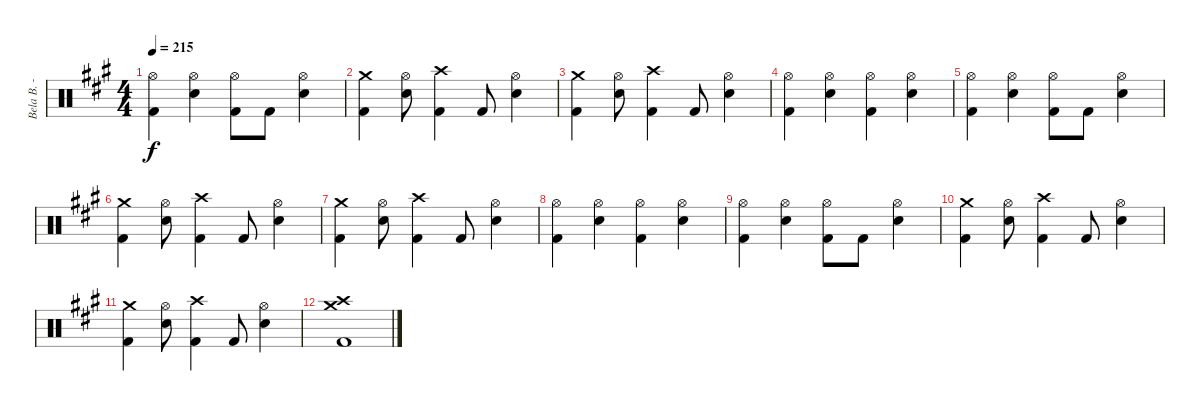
\track ("Bela B. - Schlagzeug" "Bela B. - ") {instrument percussion}
\staff {score}
\articulation defaults
\ts (4 4)
\tempo 215
\clef neutral
\ks a
("Hi-Hat (open)" "Kick (hit) 2").4{dy f} ("Hi-Hat (open)" "Snare (hit) 2").4 ("Hi-Hat (open)" "Kick (hit) 2").8 "Kick (hit) 2".8 ("Hi-Hat (open)" "Snare (hit) 2").4 |
("Crash medium (hit)" "Kick (hit) 2").4 ("Hi-Hat (open)" "Snare (hit) 2").8 ("Crash high (hit)" "Kick (hit) 2").4 "Kick (hit) 2".8 ("Hi-Hat (open)" "Snare (hit) 2").4 |
("Crash medium (hit)" "Kick (hit) 2").4 ("Hi-Hat (open)" "Snare (hit) 2").8 ("Crash high (hit)" "Kick (hit) 2").4 "Kick (hit) 2".8 ("Hi-Hat (open)" "Snare (hit) 2").4 |
("Hi-Hat (open)" "Kick (hit) 2").4 ("Hi-Hat (open)" "Snare (hit) 2").4 ("Hi-Hat (open)" "Kick (hit) 2").4 ("Hi-Hat (open)" "Snare (hit) 2").4 |
("Hi-Hat (open)" "Kick (hit) 2").4 ("Hi-Hat (open)" "Snare (hit) 2").4 ("Hi-Hat (open)" "Kick (hit) 2").8 "Kick (hit) 2".8 ("Hi-Hat (open)" "Snare (hit) 2").4 |
("Crash medium (hit)" "Kick (hit) 2").4 ("Hi-Hat (open)" "Snare (hit) 2").8 ("Crash high (hit)" "Kick (hit) 2").4 "Kick (hit) 2".8 ("Hi-Hat (open)" "Snare (hit) 2").4 |
("Crash medium (hit)" "Kick (hit) 2").4 ("Hi-Hat (open)" "Snare (hit) 2").8 ("Crash high (hit)" "Kick (hit) 2").4 "Kick (hit) 2".8 ("Hi-Hat (open)" "Snare (hit) 2").4 |
("Hi-Hat (open)" "Kick (hit) 2").4 ("Hi-Hat (open)" "Snare (hit) 2").4 ("Hi-Hat (open)" "Kick (hit) 2").4 ("Hi-Hat (open)" "Snare (hit) 2").4 |
("Hi-Hat (open)" "Kick (hit) 2").4 ("Hi-Hat (open)" "Snare (hit) 2").4 ("Hi-Hat (open)" "Kick (hit) 2").8 "Kick (hit) 2".8 ("Hi-Hat (open)" "Snare (hit) 2").4 |
("Crash medium (hit)" "Kick (hit) 2").4 ("Hi-Hat (open)" "Snare (hit) 2").8 ("Crash high (hit)" "Kick (hit) 2").4 "Kick (hit) 2".8 ("Hi-Hat (open)" "Snare (hit) 2").4 |
("Crash medium (hit)" "Kick (hit) 2").4 ("Hi-Hat (open)" "Snare (hit) 2").8 ("Crash high (hit)" "Kick (hit) 2").4 "Kick (hit) 2".8 ("Hi-Hat (open)" "Snare (hit) 2").4 |
("Crash high (hit)" "Crash medium (hit)" "Kick (hit) 2").1
